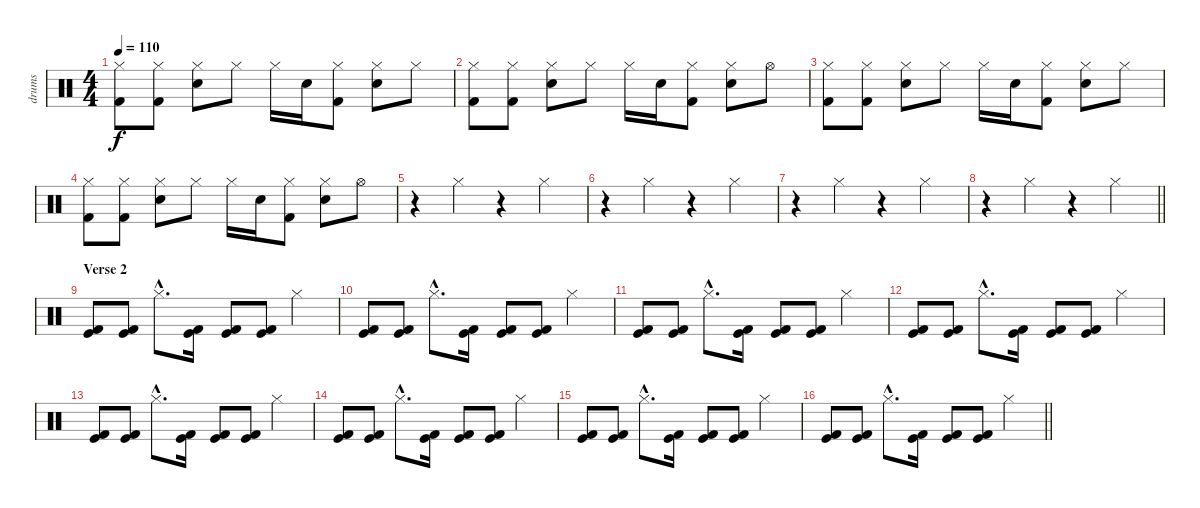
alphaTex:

\track ("drums" "drums") {instrument percussion}
\staff {score}
\articulation defaults
\ts (4 4)
\tempo 110
\clef neutral
\ks c
("Hi-Hat (closed)" "Kick (hit) 2").8{dy f} ("Hi-Hat (closed)" "Kick (hit) 2").8 ("Hi-Hat (closed)" "Electric Snare (hit)").8 "Hi-Hat (closed)".8 "Hi-Hat (closed)".16 "Electric Snare (hit)".16 ("Hi-Hat (closed)" "Kick (hit) 2").8 ("Hi-Hat (closed)" "Electric Snare (hit)").8 "Hi-Hat (closed)".8 |
("Hi-Hat (closed)" "Kick (hit) 2").8 ("Hi-Hat (closed)" "Kick (hit) 2").8 ("Hi-Hat (closed)" "Electric Snare (hit)").8 "Hi-Hat (closed)".8 "Hi-Hat (closed)".16 "Electric Snare (hit)".16 ("Hi-Hat (closed)" "Kick (hit) 2").8 ("Hi-Hat (closed)" "Electric Snare (hit)").8 "Hi-Hat (open)".8 |
("Hi-Hat (closed)" "Kick (hit) 2").8 ("Hi-Hat (closed)" "Kick (hit) 2").8 ("Hi-Hat (closed)" "Electric Snare (hit)").8 "Hi-Hat (closed)".8 "Hi-Hat (closed)".16 "Electric Snare (hit)".16 ("Hi-Hat (closed)" "Kick (hit) 2").8 ("Hi-Hat (closed)" "Electric Snare (hit)").8 "Hi-Hat (closed)".8 |
("Hi-Hat (closed)" "Kick (hit) 2").8 ("Hi-Hat (closed)" "Kick (hit) 2").8 ("Hi-Hat (closed)" "Electric Snare (hit)").8 "Hi-Hat (closed)".8 "Hi-Hat (closed)".16 "Electric Snare (hit)".16 ("Hi-Hat (closed)" "Kick (hit) 2").8 ("Hi-Hat (closed)" "Electric Snare (hit)").8 "Hi-Hat (open)".8 |
r.4 "Hi-Hat (closed)".4 r.4 "Hi-Hat (closed)".4 |
r.4 "Hi-Hat (closed)".4 r.4 "Hi-Hat (closed)".4 |
r.4 "Hi-Hat (closed)".4 r.4 "Hi-Hat (closed)".4 |
\barLineRight lightlight
r.4 "Hi-Hat (closed)".4 r.4 "Hi-Hat (closed)".4 |
\section ("" "Verse 2")
("Kick (hit) 2" "Kick (hit)").8 ("Kick (hit) 2" "Kick (hit)").8 "Hi-Hat (closed)"{hac}.8{d} ("Kick (hit) 2" "Kick (hit)").16 ("Kick (hit) 2" "Kick (hit)").8 ("Kick (hit) 2" "Kick (hit)").8 "Hi-Hat (closed)".4 |
("Kick (hit) 2" "Kick (hit)").8 ("Kick (hit) 2" "Kick (hit)").8 "Hi-Hat (closed)"{hac}.8{d} ("Kick (hit) 2" "Kick (hit)").16 ("Kick (hit) 2" "Kick (hit)").8 ("Kick (hit) 2" "Kick (hit)").8 "Hi-Hat (closed)".4 |
("Kick (hit) 2" "Kick (hit)").8 ("Kick (hit) 2" "Kick (hit)").8 "Hi-Hat (closed)"{hac}.8{d} ("Kick (hit) 2" "Kick (hit)").16 ("Kick (hit) 2" "Kick (hit)").8 ("Kick (hit) 2" "Kick (hit)").8 "Hi-Hat (closed)".4 |
("Kick (hit) 2" "Kick (hit)").8 ("Kick (hit) 2" "Kick (hit)").8 "Hi-Hat (closed)"{hac}.8{d} ("Kick (hit) 2" "Kick (hit)").16 ("Kick (hit) 2" "Kick (hit)").8 ("Kick (hit) 2" "Kick (hit)").8 "Hi-Hat (closed)".4 |
("Kick (hit) 2" "Kick (hit)").8 ("Kick (hit) 2" "Kick (hit)").8 "Hi-Hat (closed)"{hac}.8{d} ("Kick (hit) 2" "Kick (hit)").16 ("Kick (hit) 2" "Kick (hit)").8 ("Kick (hit) 2" "Kick (hit)").8 "Hi-Hat (closed)".4 |
("Kick (hit) 2" "Kick (hit)").8 ("Kick (hit) 2" "Kick (hit)").8 "Hi-Hat (closed)"{hac}.8{d} ("Kick (hit) 2" "Kick (hit)").16 ("Kick (hit) 2" "Kick (hit)").8 ("Kick (hit) 2" "Kick (hit)").8 "Hi-Hat (closed)".4 |
("Kick (hit) 2" "Kick (hit)").8 ("Kick (hit) 2" "Kick (hit)").8 "Hi-Hat (closed)"{hac}.8{d} ("Kick (hit) 2" "Kick (hit)").16 ("Kick (hit) 2" "Kick (hit)").8 ("Kick (hit) 2" "Kick (hit)").8 "Hi-Hat (closed)".4 |
\barLineRight lightlight
("Kick (hit) 2" "Kick (hit)").8 ("Kick (hit) 2" "Kick (hit)").8 "Hi-Hat (closed)"{hac}.8{d} ("Kick (hit) 2" "Kick (hit)").16 ("Kick (hit) 2" "Kick (hit)").8 ("Kick (hit) 2" "Kick (hit)").8 "Hi-Hat (closed)".4
